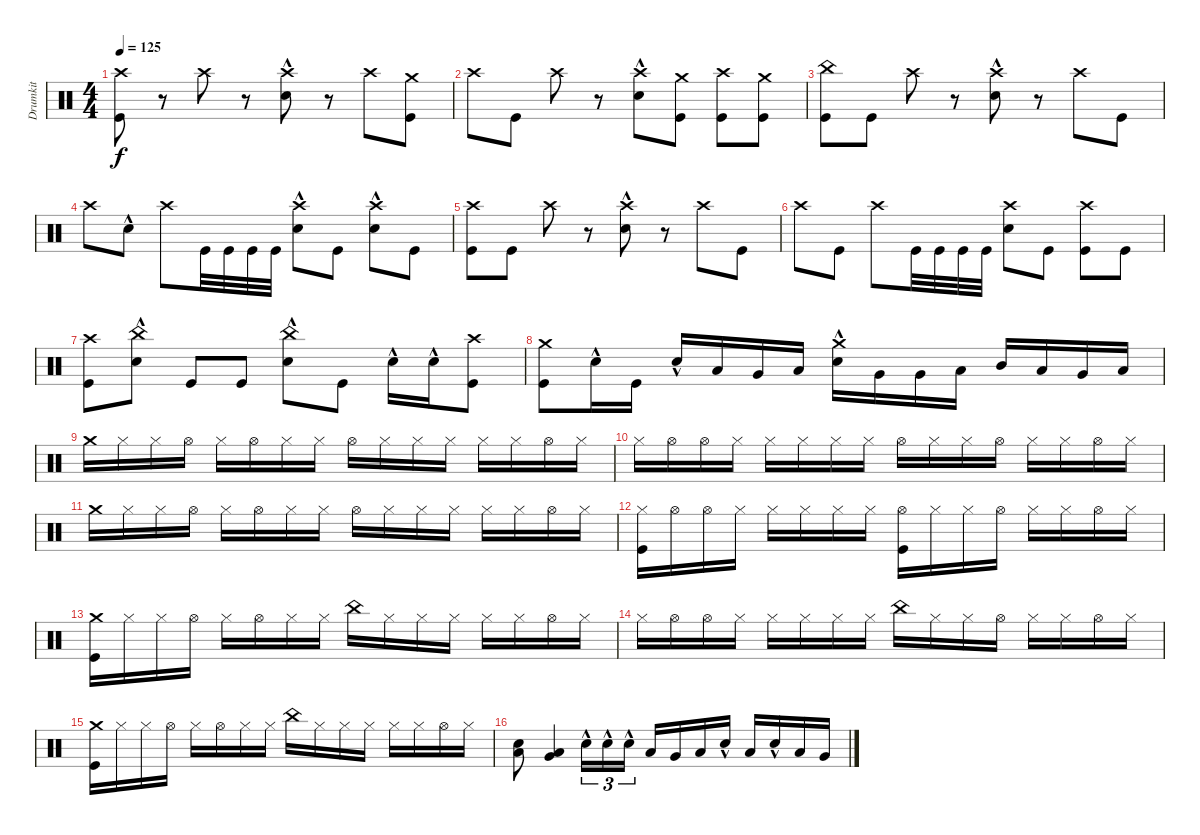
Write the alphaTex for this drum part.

\track ("Drumkit" "Drumkit") {instrument percussion}
\staff {score}
\articulation defaults
\ts (4 4)
\tempo 125
\clef neutral
\ks c
("Crash high (hit)" "Kick (hit)").8{dy f} r.8 "Crash high (hit)".8 r.8 ("Crash high (hit)" "Snare (hit) 2"{hac}).8 r.8 "Crash high (hit)".8 ("Kick (hit)" "Crash medium (hit)").8 |
"Crash high (hit)".8 "Kick (hit)".8 "Crash high (hit)".8 r.8 ("Crash high (hit)" "Snare (hit) 2"{hac}).8 ("Kick (hit)" "Crash medium (hit)").8 ("Kick (hit)" "Crash high (hit)").8 ("Kick (hit)" "Crash medium (hit)").8 |
("Kick (hit)" "China (hit)").8 "Kick (hit)".8 "Crash high (hit)".8 r.8 ("Crash high (hit)" "Snare (hit) 2"{hac}).8 r.8 "Crash high (hit)".8 "Kick (hit)".8 |
"Crash high (hit)".8 "Snare (hit) 2"{hac}.8 "Crash high (hit)".8 "Kick (hit)".32 "Kick (hit)".32 "Kick (hit)".32 "Kick (hit)".32 ("Crash high (hit)" "Snare (hit) 2"{hac}).8 "Kick (hit)".8 ("Snare (hit) 2"{hac} "Crash high (hit)").8 "Kick (hit)".8 |
("Crash high (hit)" "Kick (hit)").8 "Kick (hit)".8 "Crash high (hit)".8 r.8 ("Snare (hit) 2"{hac} "Crash high (hit)").8 r.8 "Crash high (hit)".8 "Kick (hit)".8 |
"Crash high (hit)".8 "Kick (hit)".8 "Crash high (hit)".8 "Kick (hit)".32 "Kick (hit)".32 "Kick (hit)".32 "Kick (hit)".32 ("Snare (hit) 2" "Crash high (hit)").8 "Kick (hit)".8 ("Kick (hit)" "Crash high (hit)").8 "Kick (hit)".8 |
("Crash high (hit)" "Kick (hit)").8 ("Snare (hit) 2"{hac} "China (hit)").8 "Kick (hit)".8 "Kick (hit)".8 ("Snare (hit) 2"{hac} "China (hit)").8 "Kick (hit)".8 "Snare (hit) 2"{hac}.16 "Snare (hit) 2"{hac}.16 ("Crash high (hit)" "Kick (hit)").8 |
("Crash medium (hit)" "Kick (hit)").8 "Snare (hit) 2"{hac}.16 "Kick (hit)".16 "Snare (hit) 2"{hac}.16 "Low Tom (hit)".16 "Very Low Tom (hit)".16 "Low Floor Tom (hit)".16 ("Snare (hit) 2"{hac} "Crash medium (hit)").16 "Very Low Tom (hit)".16 "Very Low Tom (hit)".16 "Low Tom (hit)".16 "Mid Tom (hit)".16 "Low Tom (hit)".16 "Very Low Tom (hit)".16 "Low Floor Tom (hit)".16 |
"Crash medium (hit)".16 "Hi-Hat (closed)".16 "Hi-Hat (closed)".16 "Hi-Hat (open)".16 "Hi-Hat (closed)".16 "Hi-Hat (open)".16 "Hi-Hat (closed)".16 "Hi-Hat (closed)".16 "Hi-Hat (open)".16 "Hi-Hat (closed)".16 "Hi-Hat (closed)".16 "Hi-Hat (closed)".16 "Hi-Hat (closed)".16 "Hi-Hat (closed)".16 "Hi-Hat (open)".16 "Hi-Hat (closed)".16 |
"Hi-Hat (closed)".16 "Hi-Hat (open)".16 "Hi-Hat (open)".16 "Hi-Hat (closed)".16 "Hi-Hat (closed)".16 "Hi-Hat (closed)".16 "Hi-Hat (closed)".16 "Hi-Hat (closed)".16 "Hi-Hat (open)".16 "Hi-Hat (closed)".16 "Hi-Hat (closed)".16 "Hi-Hat (open)".16 "Hi-Hat (closed)".16 "Hi-Hat (closed)".16 "Hi-Hat (open)".16 "Hi-Hat (closed)".16 |
"Crash medium (hit)".16 "Hi-Hat (closed)".16 "Hi-Hat (closed)".16 "Hi-Hat (open)".16 "Hi-Hat (closed)".16 "Hi-Hat (open)".16 "Hi-Hat (closed)".16 "Hi-Hat (closed)".16 "Hi-Hat (open)".16 "Hi-Hat (closed)".16 "Hi-Hat (closed)".16 "Hi-Hat (closed)".16 "Hi-Hat (closed)".16 "Hi-Hat (closed)".16 "Hi-Hat (open)".16 "Hi-Hat (closed)".16 |
("Hi-Hat (closed)" "Kick (hit)").16 "Hi-Hat (open)".16 "Hi-Hat (open)".16 "Hi-Hat (closed)".16 "Hi-Hat (closed)".16 "Hi-Hat (closed)".16 "Hi-Hat (closed)".16 "Hi-Hat (closed)".16 ("Hi-Hat (open)" "Kick (hit)").16 "Hi-Hat (closed)".16 "Hi-Hat (closed)".16 "Hi-Hat (open)".16 "Hi-Hat (closed)".16 "Hi-Hat (closed)".16 "Hi-Hat (open)".16 "Hi-Hat (closed)".16 |
("Crash medium (hit)" "Kick (hit)").16 "Hi-Hat (closed)".16 "Hi-Hat (closed)".16 "Hi-Hat (open)".16 "Hi-Hat (closed)".16 "Hi-Hat (open)".16 "Hi-Hat (closed)".16 "Hi-Hat (closed)".16 "China (hit)".16 "Hi-Hat (closed)".16 "Hi-Hat (closed)".16 "Hi-Hat (closed)".16 "Hi-Hat (closed)".16 "Hi-Hat (closed)".16 "Hi-Hat (open)".16 "Hi-Hat (closed)".16 |
"Hi-Hat (closed)".16 "Hi-Hat (open)".16 "Hi-Hat (open)".16 "Hi-Hat (closed)".16 "Hi-Hat (closed)".16 "Hi-Hat (closed)".16 "Hi-Hat (closed)".16 "Hi-Hat (closed)".16 "China (hit)".16 "Hi-Hat (closed)".16 "Hi-Hat (closed)".16 "Hi-Hat (open)".16 "Hi-Hat (closed)".16 "Hi-Hat (closed)".16 "Hi-Hat (open)".16 "Hi-Hat (closed)".16 |
("Crash medium (hit)" "Kick (hit)").16 "Hi-Hat (closed)".16 "Hi-Hat (closed)".16 "Hi-Hat (open)".16 "Hi-Hat (closed)".16 "Hi-Hat (open)".16 "Hi-Hat (closed)".16 "Hi-Hat (closed)".16 "China (hit)".16 "Hi-Hat (closed)".16 "Hi-Hat (closed)".16 "Hi-Hat (closed)".16 "Hi-Hat (closed)".16 "Hi-Hat (closed)".16 "Hi-Hat (open)".16 "Hi-Hat (closed)".16 |
("Snare (hit) 2" "Low Tom (hit)").8 ("Low Tom (hit)" "Very Low Tom (hit)").4 "Snare (hit) 2"{hac}.16{tu (3 2)} "Snare (hit) 2"{hac}.16{tu (3 2)} "Snare (hit) 2"{hac}.16{tu (3 2)} "Low Tom (hit)".16 "Very Low Tom (hit)".16 "Low Floor Tom (hit)".16 "Snare (hit) 2"{hac}.16 "Low Tom (hit)".16 "Snare (hit) 2"{hac}.16 "Low Tom (hit)".16 "Very Low Tom (hit)".16
